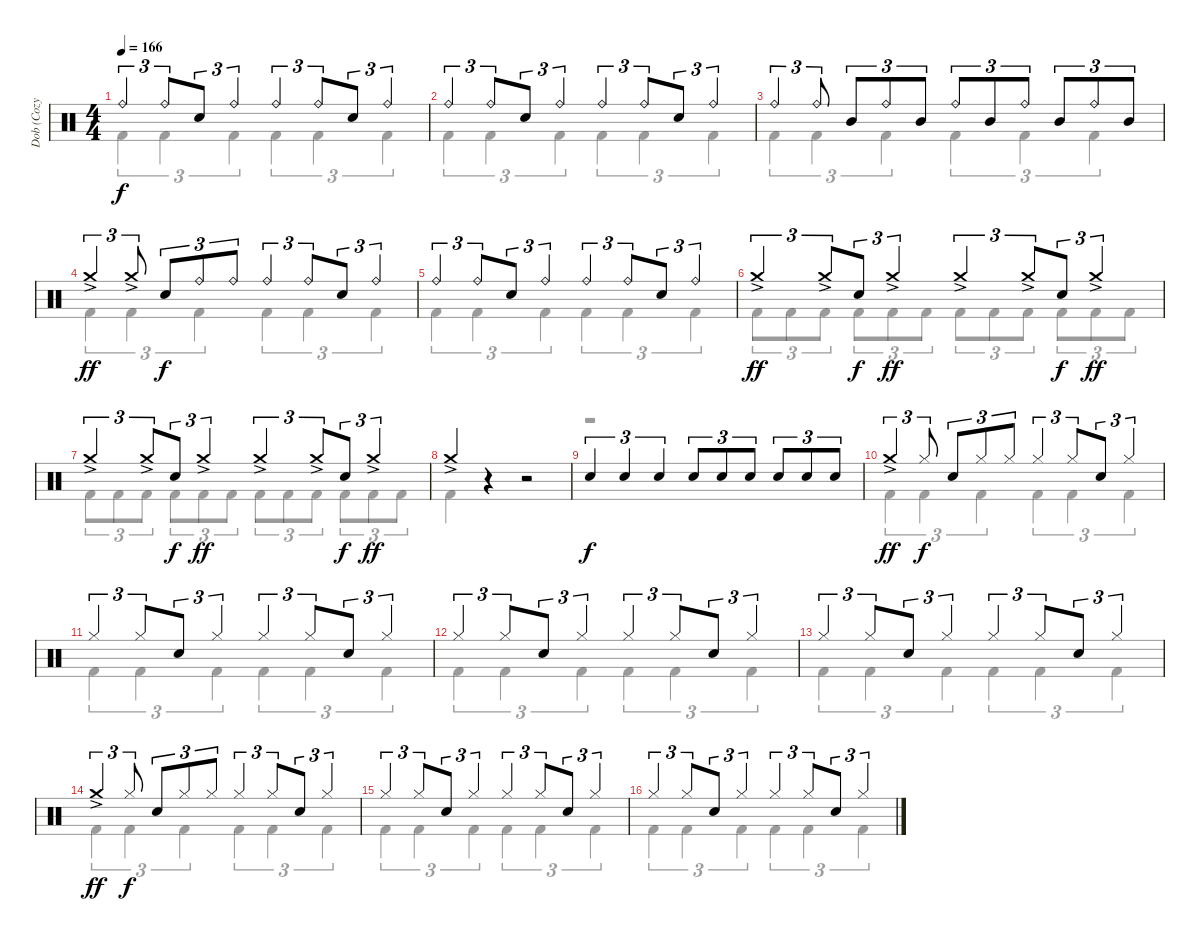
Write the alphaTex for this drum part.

\track ("Dob (Cozy Powell)" "Dob (Cozy ") {instrument percussion}
\staff {score}
\articulation defaults
\voice
\ts (4 4)
\tempo 166
\clef neutral
\ks c "Ride (bell)".4{tu (3 2) dy f} "Ride (bell)".8{tu (3 2) beam merge} "Electric Snare (hit)".8{tu (3 2)} "Ride (bell)".4{tu (3 2)} "Ride (bell)".4{tu (3 2)} "Ride (bell)".8{tu (3 2) beam merge} "Electric Snare (hit)".8{tu (3 2)} "Ride (bell)".4{tu (3 2)}
|
"Ride (bell)".4{tu (3 2)} "Ride (bell)".8{tu (3 2) beam merge} "Electric Snare (hit)".8{tu (3 2)} "Ride (bell)".4{tu (3 2)} "Ride (bell)".4{tu (3 2)} "Ride (bell)".8{tu (3 2) beam merge} "Electric Snare (hit)".8{tu (3 2)} "Ride (bell)".4{tu (3 2)} |
"Ride (bell)".4{tu (3 2)} "Ride (bell)".8{tu (3 2)} "Mid Tom (hit)".8{tu (3 2)} "Ride (bell)".8{tu (3 2)} "Mid Tom (hit)".8{tu (3 2)} "Ride (bell)".8{tu (3 2)} "Mid Tom (hit)".8{tu (3 2)} "Ride (bell)".8{tu (3 2)} "Mid Tom (hit)".8{tu (3 2)} "Ride (bell)".8{tu (3 2)} "Mid Tom (hit)".8{tu (3 2)} |
"Crash medium (hit)"{ac}.4{tu (3 2) dy ff} "Crash medium (hit)"{ac}.8{tu (3 2)} "Electric Snare (hit)".8{tu (3 2) dy f} "Ride (bell)".8{tu (3 2)} "Ride (bell)".8{tu (3 2)} "Ride (bell)".4{tu (3 2)} "Ride (bell)".8{tu (3 2) beam merge} "Electric Snare (hit)".8{tu (3 2)} "Ride (bell)".4{tu (3 2)} |
"Ride (bell)".4{tu (3 2)} "Ride (bell)".8{tu (3 2) beam merge} "Electric Snare (hit)".8{tu (3 2)} "Ride (bell)".4{tu (3 2)} "Ride (bell)".4{tu (3 2)} "Ride (bell)".8{tu (3 2) beam merge} "Electric Snare (hit)".8{tu (3 2)} "Ride (bell)".4{tu (3 2)} |
"Crash medium (hit)"{ac}.4{tu (3 2) dy ff} "Crash medium (hit)"{ac}.8{tu (3 2) beam merge} "Electric Snare (hit)".8{tu (3 2) dy f} "Crash medium (hit)"{ac}.4{tu (3 2) dy ff} "Crash medium (hit)"{ac}.4{tu (3 2)} "Crash medium (hit)"{ac}.8{tu (3 2) beam merge} "Electric Snare (hit)".8{tu (3 2) dy f} "Crash medium (hit)"{ac}.4{tu (3 2) dy ff} |
"Crash medium (hit)"{ac}.4{tu (3 2)} "Crash medium (hit)"{ac}.8{tu (3 2) beam merge} "Electric Snare (hit)".8{tu (3 2) dy f} "Crash medium (hit)"{ac}.4{tu (3 2) dy ff} "Crash medium (hit)"{ac}.4{tu (3 2)} "Crash medium (hit)"{ac}.8{tu (3 2) beam merge} "Electric Snare (hit)".8{tu (3 2) dy f} "Crash medium (hit)"{ac}.4{tu (3 2) dy ff} |
"Crash medium (hit)"{ac}.4 r.4 r.2 |
"Electric Snare (hit)".4{tu (3 2) dy f} "Electric Snare (hit)".4{tu (3 2)} "Electric Snare (hit)".4{tu (3 2)} "Electric Snare (hit)".8{tu (3 2)} "Electric Snare (hit)".8{tu (3 2)} "Electric Snare (hit)".8{tu (3 2)} "Electric Snare (hit)".8{tu (3 2)} "Electric Snare (hit)".8{tu (3 2)} "Electric Snare (hit)".8{tu (3 2)} |
"Crash medium (hit)"{ac}.4{tu (3 2) dy ff} "Hi-Hat (closed)".8{tu (3 2) dy f} "Electric Snare (hit)".8{tu (3 2)} "Hi-Hat (closed)".8{tu (3 2)} "Hi-Hat (closed)".8{tu (3 2)} "Hi-Hat (closed)".4{tu (3 2)} "Hi-Hat (closed)".8{tu (3 2) beam merge} "Electric Snare (hit)".8{tu (3 2)} "Hi-Hat (closed)".4{tu (3 2)} |
"Hi-Hat (closed)".4{tu (3 2)} "Hi-Hat (closed)".8{tu (3 2) beam merge} "Electric Snare (hit)".8{tu (3 2)} "Hi-Hat (closed)".4{tu (3 2)} "Hi-Hat (closed)".4{tu (3 2)} "Hi-Hat (closed)".8{tu (3 2) beam merge} "Electric Snare (hit)".8{tu (3 2)} "Hi-Hat (closed)".4{tu (3 2)} |
"Hi-Hat (closed)".4{tu (3 2)} "Hi-Hat (closed)".8{tu (3 2) beam merge} "Electric Snare (hit)".8{tu (3 2)} "Hi-Hat (closed)".4{tu (3 2)} "Hi-Hat (closed)".4{tu (3 2)} "Hi-Hat (closed)".8{tu (3 2) beam merge} "Electric Snare (hit)".8{tu (3 2)} "Hi-Hat (closed)".4{tu (3 2)} |
"Hi-Hat (closed)".4{tu (3 2)} "Hi-Hat (closed)".8{tu (3 2) beam merge} "Electric Snare (hit)".8{tu (3 2)} "Hi-Hat (closed)".4{tu (3 2)} "Hi-Hat (closed)".4{tu (3 2)} "Hi-Hat (closed)".8{tu (3 2) beam merge} "Electric Snare (hit)".8{tu (3 2)} "Hi-Hat (closed)".4{tu (3 2)} |
"Crash medium (hit)"{ac}.4{tu (3 2) dy ff} "Hi-Hat (closed)".8{tu (3 2) dy f} "Electric Snare (hit)".8{tu (3 2)} "Hi-Hat (closed)".8{tu (3 2)} "Hi-Hat (closed)".8{tu (3 2)} "Hi-Hat (closed)".4{tu (3 2)} "Hi-Hat (closed)".8{tu (3 2) beam merge} "Electric Snare (hit)".8{tu (3 2)} "Hi-Hat (closed)".4{tu (3 2)} |
"Hi-Hat (closed)".4{tu (3 2)} "Hi-Hat (closed)".8{tu (3 2) beam merge} "Electric Snare (hit)".8{tu (3 2)} "Hi-Hat (closed)".4{tu (3 2)} "Hi-Hat (closed)".4{tu (3 2)} "Hi-Hat (closed)".8{tu (3 2) beam merge} "Electric Snare (hit)".8{tu (3 2)} "Hi-Hat (closed)".4{tu (3 2)} |
"Hi-Hat (closed)".4{tu (3 2)} "Hi-Hat (closed)".8{tu (3 2) beam merge} "Electric Snare (hit)".8{tu (3 2)} "Hi-Hat (closed)".4{tu (3 2)} "Hi-Hat (closed)".4{tu (3 2)} "Hi-Hat (closed)".8{tu (3 2) beam merge} "Electric Snare (hit)".8{tu (3 2)} "Hi-Hat (closed)".4{tu (3 2)}
\voice
\clef neutral
\ottava regular
\simile none
\ks c "Kick (hit) 2".4{tu (3 2) dy f} "Kick (hit) 2".4{tu (3 2)} "Kick (hit) 2".4{tu (3 2)} "Kick (hit) 2".4{tu (3 2)} "Kick (hit) 2".4{tu (3 2)} "Kick (hit) 2".4{tu (3 2)}
|
"Kick (hit) 2".4{tu (3 2)} "Kick (hit) 2".4{tu (3 2)} "Kick (hit) 2".4{tu (3 2)} "Kick (hit) 2".4{tu (3 2)} "Kick (hit) 2".4{tu (3 2)} "Kick (hit) 2".4{tu (3 2)} |
"Kick (hit) 2".4{tu (3 2)} "Kick (hit) 2".4{tu (3 2)} "Kick (hit) 2".4{tu (3 2)} "Kick (hit) 2".4{tu (3 2)} "Kick (hit) 2".4{tu (3 2)} "Kick (hit) 2".4{tu (3 2)} |
"Kick (hit) 2".4{tu (3 2)} "Kick (hit) 2".4{tu (3 2)} "Kick (hit) 2".4{tu (3 2)} "Kick (hit) 2".4{tu (3 2)} "Kick (hit) 2".4{tu (3 2)} "Kick (hit) 2".4{tu (3 2)} |
"Kick (hit) 2".4{tu (3 2)} "Kick (hit) 2".4{tu (3 2)} "Kick (hit) 2".4{tu (3 2)} "Kick (hit) 2".4{tu (3 2)} "Kick (hit) 2".4{tu (3 2)} "Kick (hit) 2".4{tu (3 2)} |
"Kick (hit) 2".8{tu (3 2)} "Kick (hit) 2".8{tu (3 2)} "Kick (hit) 2".8{tu (3 2)} "Kick (hit) 2".8{tu (3 2)} "Kick (hit) 2".8{tu (3 2)} "Kick (hit) 2".8{tu (3 2)} "Kick (hit) 2".8{tu (3 2)} "Kick (hit) 2".8{tu (3 2)} "Kick (hit) 2".8{tu (3 2)} "Kick (hit) 2".8{tu (3 2)} "Kick (hit) 2".8{tu (3 2)} "Kick (hit) 2".8{tu (3 2)} |
"Kick (hit) 2".8{tu (3 2)} "Kick (hit) 2".8{tu (3 2)} "Kick (hit) 2".8{tu (3 2)} "Kick (hit) 2".8{tu (3 2)} "Kick (hit) 2".8{tu (3 2)} "Kick (hit) 2".8{tu (3 2)} "Kick (hit) 2".8{tu (3 2)} "Kick (hit) 2".8{tu (3 2)} "Kick (hit) 2".8{tu (3 2)} "Kick (hit) 2".8{tu (3 2)} "Kick (hit) 2".8{tu (3 2)} "Kick (hit) 2".8{tu (3 2)} |
"Kick (hit) 2".4 r.4 r.2 |
r.1 |
"Kick (hit) 2".4{tu (3 2)} "Kick (hit) 2".4{tu (3 2)} "Kick (hit) 2".4{tu (3 2)} "Kick (hit) 2".4{tu (3 2)} "Kick (hit) 2".4{tu (3 2)} "Kick (hit) 2".4{tu (3 2)} |
"Kick (hit) 2".4{tu (3 2)} "Kick (hit) 2".4{tu (3 2)} "Kick (hit) 2".4{tu (3 2)} "Kick (hit) 2".4{tu (3 2)} "Kick (hit) 2".4{tu (3 2)} "Kick (hit) 2".4{tu (3 2)} |
"Kick (hit) 2".4{tu (3 2)} "Kick (hit) 2".4{tu (3 2)} "Kick (hit) 2".4{tu (3 2)} "Kick (hit) 2".4{tu (3 2)} "Kick (hit) 2".4{tu (3 2)} "Kick (hit) 2".4{tu (3 2)} |
"Kick (hit) 2".4{tu (3 2)} "Kick (hit) 2".4{tu (3 2)} "Kick (hit) 2".4{tu (3 2)} "Kick (hit) 2".4{tu (3 2)} "Kick (hit) 2".4{tu (3 2)} "Kick (hit) 2".4{tu (3 2)} |
"Kick (hit) 2".4{tu (3 2)} "Kick (hit) 2".4{tu (3 2)} "Kick (hit) 2".4{tu (3 2)} "Kick (hit) 2".4{tu (3 2)} "Kick (hit) 2".4{tu (3 2)} "Kick (hit) 2".4{tu (3 2)} |
"Kick (hit) 2".4{tu (3 2)} "Kick (hit) 2".4{tu (3 2)} "Kick (hit) 2".4{tu (3 2)} "Kick (hit) 2".4{tu (3 2)} "Kick (hit) 2".4{tu (3 2)} "Kick (hit) 2".4{tu (3 2)} |
"Kick (hit) 2".4{tu (3 2)} "Kick (hit) 2".4{tu (3 2)} "Kick (hit) 2".4{tu (3 2)} "Kick (hit) 2".4{tu (3 2)} "Kick (hit) 2".4{tu (3 2)} "Kick (hit) 2".4{tu (3 2)}
